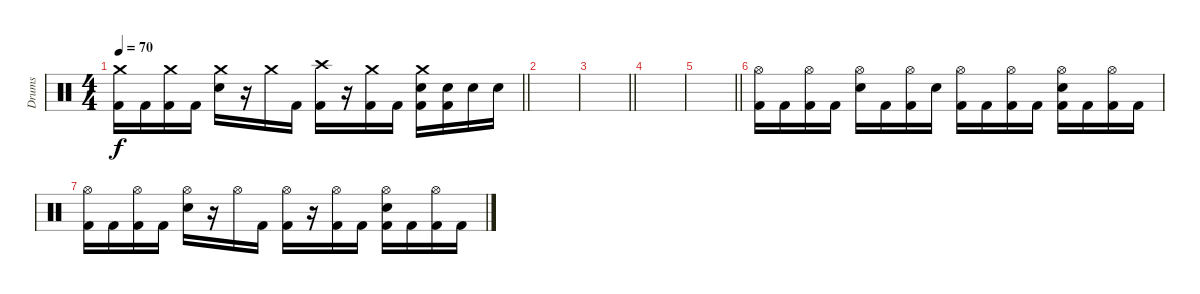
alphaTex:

\track ("Drums" "Drums") {mute instrument percussion}
\staff {score}
\articulation defaults
\ts (4 4)
\tempo 70
\clef neutral
\barLineRight lightlight
\ks c
("Crash medium (hit)" "Kick (hit) 2").16{dy f} "Kick (hit) 2".16 ("Crash medium (hit)" "Kick (hit) 2").16 "Kick (hit) 2".16 ("Crash medium (hit)" "Electric Snare (hit)").16 r.16 "Crash medium (hit)".16 "Kick (hit) 2".16 ("Crash high (hit)" "Kick (hit) 2").16 r.16 ("Crash medium (hit)" "Kick (hit) 2").16 "Kick (hit) 2".16 ("Crash medium (hit)" "Electric Snare (hit)" "Kick (hit) 2").16 ("Electric Snare (hit)" "Kick (hit) 2").16 "Electric Snare (hit)".16 "Electric Snare (hit)".16 |
|
\barLineRight lightlight
|
|
\barLineRight lightlight
|
\section ("" "")
("Hi-Hat (open)" "Kick (hit) 2").16 "Kick (hit) 2".16 ("Hi-Hat (open)" "Kick (hit) 2").16 "Kick (hit) 2".16 ("Hi-Hat (open)" "Electric Snare (hit)").16 "Kick (hit) 2".16 ("Hi-Hat (open)" "Kick (hit) 2").16 "Electric Snare (hit)".16 ("Hi-Hat (open)" "Kick (hit) 2").16 "Kick (hit) 2".16 ("Hi-Hat (open)" "Kick (hit) 2").16 "Kick (hit) 2".16 ("Hi-Hat (open)" "Electric Snare (hit)" "Kick (hit) 2").16 "Kick (hit) 2".16 ("Hi-Hat (open)" "Kick (hit) 2").16 "Kick (hit) 2".16 |
("Hi-Hat (open)" "Kick (hit) 2").16 "Kick (hit) 2".16 ("Hi-Hat (open)" "Kick (hit) 2").16 "Kick (hit) 2".16 ("Hi-Hat (open)" "Electric Snare (hit)").16 r.16 "Hi-Hat (open)".16 "Kick (hit) 2".16 ("Hi-Hat (open)" "Kick (hit) 2").16 r.16 ("Hi-Hat (open)" "Kick (hit) 2").16 "Kick (hit) 2".16 ("Hi-Hat (open)" "Electric Snare (hit)" "Kick (hit) 2").16 "Kick (hit) 2".16 ("Hi-Hat (open)" "Kick (hit) 2").16 "Kick (hit) 2".16
